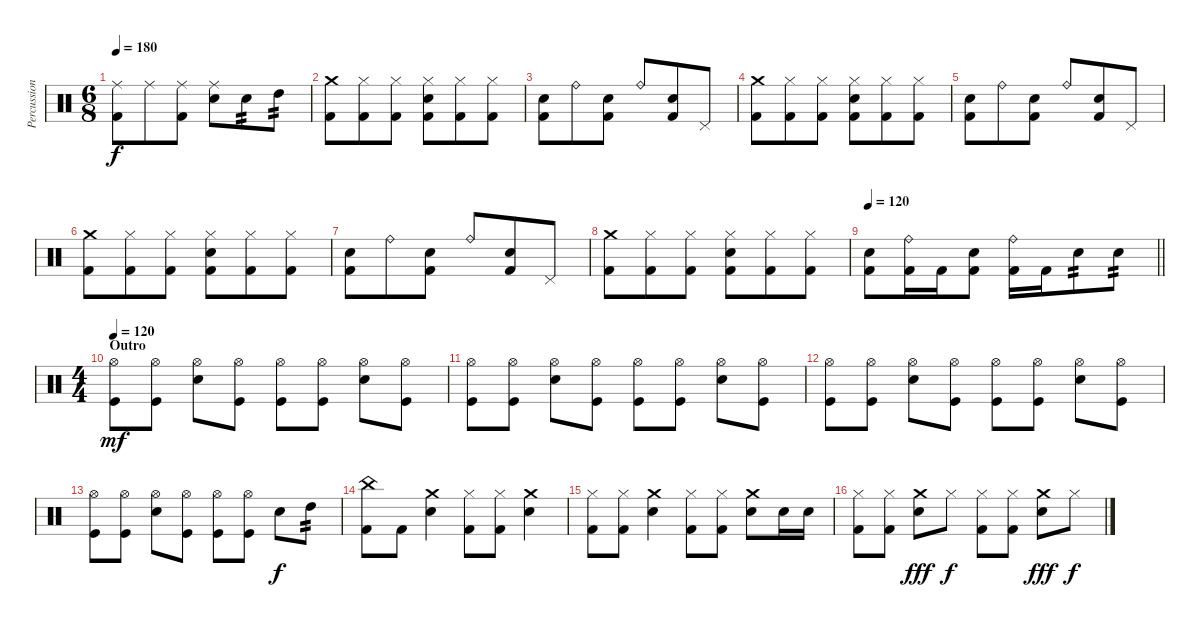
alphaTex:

\track ("Percussion" "Percussion") {instrument percussion}
\staff {score}
\articulation defaults
\ts (6 8)
\tempo 180
\clef neutral
\ks c
("Ride (middle)" "Kick (hit) 2").8{dy f} "Ride (middle)".8 ("Ride (middle)" "Kick (hit) 2").8 ("Ride (middle)" "Electric Snare (hit)").8 "Electric Snare (hit)".8{tp 2} "High Tom (hit)".8{tp 2} |
("Crash medium (hit)" "Kick (hit) 2").8 ("Hi-Hat (closed)" "Kick (hit) 2").8 ("Hi-Hat (closed)" "Kick (hit) 2").8 ("Hi-Hat (closed)" "Electric Snare (hit)" "Kick (hit) 2").8 ("Hi-Hat (closed)" "Kick (hit) 2").8 ("Hi-Hat (closed)" "Kick (hit) 2").8 |
("Hand Clap (hit)" "Kick (hit) 2").8 "Ride (bell)".8 ("Hand Clap (hit)" "Kick (hit) 2").8 "Ride (bell)".8 ("Hand Clap (hit)" "Kick (hit) 2").8 "Pedal Hi-Hat (hit)".8 |
("Crash medium (hit)" "Kick (hit) 2").8 ("Hi-Hat (closed)" "Kick (hit) 2").8 ("Hi-Hat (closed)" "Kick (hit) 2").8 ("Hi-Hat (closed)" "Electric Snare (hit)" "Kick (hit) 2").8 ("Hi-Hat (closed)" "Kick (hit) 2").8 ("Hi-Hat (closed)" "Kick (hit) 2").8 |
("Hand Clap (hit)" "Kick (hit) 2").8 "Ride (bell)".8 ("Hand Clap (hit)" "Kick (hit) 2").8 "Ride (bell)".8 ("Hand Clap (hit)" "Kick (hit) 2").8 "Pedal Hi-Hat (hit)".8 |
("Crash medium (hit)" "Kick (hit) 2").8 ("Hi-Hat (closed)" "Kick (hit) 2").8 ("Hi-Hat (closed)" "Kick (hit) 2").8 ("Hi-Hat (closed)" "Electric Snare (hit)" "Kick (hit) 2").8 ("Hi-Hat (closed)" "Kick (hit) 2").8 ("Hi-Hat (closed)" "Kick (hit) 2").8 |
("Hand Clap (hit)" "Kick (hit) 2").8 "Ride (bell)".8 ("Hand Clap (hit)" "Kick (hit) 2").8 "Ride (bell)".8 ("Hand Clap (hit)" "Kick (hit) 2").8 "Pedal Hi-Hat (hit)".8 |
("Crash medium (hit)" "Kick (hit) 2").8 ("Hi-Hat (closed)" "Kick (hit) 2").8 ("Hi-Hat (closed)" "Kick (hit) 2").8 ("Hi-Hat (closed)" "Electric Snare (hit)" "Kick (hit) 2").8 ("Hi-Hat (closed)" "Kick (hit) 2").8 ("Hi-Hat (closed)" "Kick (hit) 2").8 |
\tempo 120
\barLineRight lightlight
("Hand Clap (hit)" "Kick (hit) 2").8 ("Ride (bell)" "Kick (hit) 2").16 "Kick (hit) 2".16 ("Hand Clap (hit)" "Kick (hit) 2").8 ("Ride (bell)" "Kick (hit) 2").16 "Kick (hit) 2".16 "Electric Snare (hit)".8{tp 2} "Electric Snare (hit)".8{tp 2} |
\ts (4 4)
\section ("" "Outro")
\tempo 120
("Hi-Hat (open)" "Kick (hit)").8{dy mf} ("Hi-Hat (open)" "Kick (hit)").8 ("Hi-Hat (open)" "Electric Snare (hit)").8 ("Hi-Hat (open)" "Kick (hit)").8 ("Hi-Hat (open)" "Kick (hit)").8 ("Hi-Hat (open)" "Kick (hit)").8 ("Hi-Hat (open)" "Electric Snare (hit)").8 ("Hi-Hat (open)" "Kick (hit)").8 |
("Hi-Hat (open)" "Kick (hit)").8 ("Hi-Hat (open)" "Kick (hit)").8 ("Hi-Hat (open)" "Electric Snare (hit)").8 ("Hi-Hat (open)" "Kick (hit)").8 ("Hi-Hat (open)" "Kick (hit)").8 ("Hi-Hat (open)" "Kick (hit)").8 ("Hi-Hat (open)" "Electric Snare (hit)").8 ("Hi-Hat (open)" "Kick (hit)").8 |
("Hi-Hat (open)" "Kick (hit)").8 ("Hi-Hat (open)" "Kick (hit)").8 ("Hi-Hat (open)" "Electric Snare (hit)").8 ("Hi-Hat (open)" "Kick (hit)").8 ("Hi-Hat (open)" "Kick (hit)").8 ("Hi-Hat (open)" "Kick (hit)").8 ("Hi-Hat (open)" "Electric Snare (hit)").8 ("Hi-Hat (open)" "Kick (hit)").8 |
("Hi-Hat (open)" "Kick (hit)").8 ("Hi-Hat (open)" "Kick (hit)").8 ("Hi-Hat (open)" "Electric Snare (hit)").8 ("Hi-Hat (open)" "Kick (hit)").8 ("Hi-Hat (open)" "Kick (hit)").8 ("Hi-Hat (open)" "Kick (hit)").8 "Electric Snare (hit)".8{dy f} "High Tom (hit)".8{tp 2} |
("China (hit)" "Kick (hit) 2").8 "Kick (hit) 2".8 ("Crash medium (hit)" "Electric Snare (hit)").4 ("Hi-Hat (closed)" "Kick (hit) 2").8 ("Hi-Hat (closed)" "Kick (hit) 2").8 ("Crash medium (hit)" "Electric Snare (hit)").4 |
("Hi-Hat (closed)" "Kick (hit) 2").8 ("Hi-Hat (closed)" "Kick (hit) 2").8 ("Crash medium (hit)" "Electric Snare (hit)").4 ("Hi-Hat (closed)" "Kick (hit) 2").8 ("Hi-Hat (closed)" "Kick (hit) 2").8 ("Crash medium (hit)" "Electric Snare (hit)").8 "Electric Snare (hit)".16 "Electric Snare (hit)".16 |
("Hi-Hat (closed)" "Kick (hit) 2").8 ("Hi-Hat (closed)" "Kick (hit) 2").8 ("Crash medium (hit)" "Electric Snare (hit)").8{dy fff} "Hi-Hat (closed)".8{dy f} ("Hi-Hat (closed)" "Kick (hit) 2").8 ("Hi-Hat (closed)" "Kick (hit) 2").8 ("Crash medium (hit)" "Electric Snare (hit)").8{dy fff} "Hi-Hat (closed)".8{dy f}
